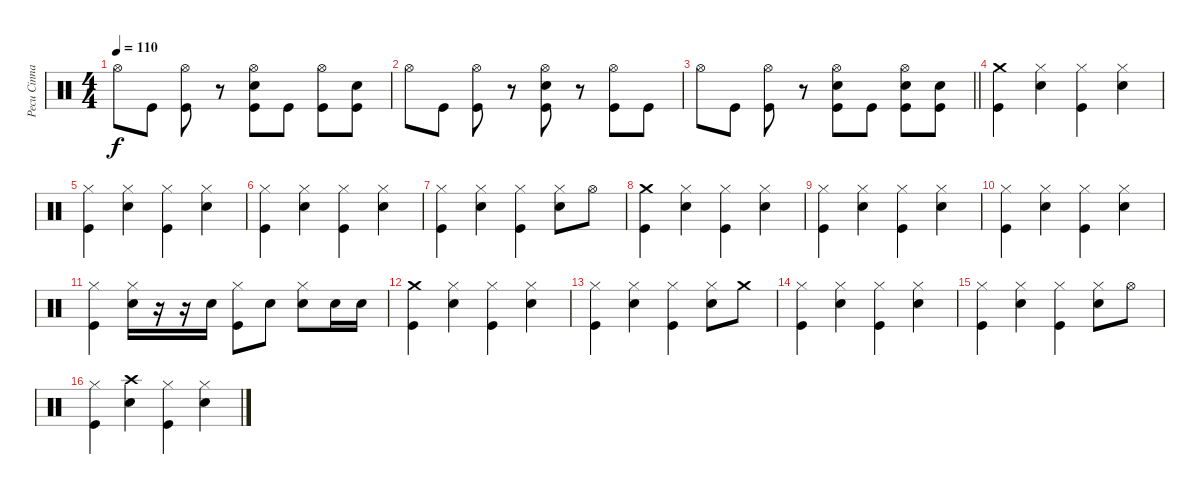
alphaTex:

\track ("Pecu Cinnari" "Pecu Cinna") {instrument percussion}
\staff {score}
\articulation defaults
\ts (4 4)
\tempo 110
\clef neutral
\ks c "Hi-Hat (open)".8{dy f} "Kick (hit)".8
("Hi-Hat (open)" "Kick (hit)").8 r.8 ("Hi-Hat (open)" "Snare (hit) 2" "Kick (hit)").8 "Kick (hit)".8 ("Hi-Hat (open)" "Kick (hit)").8 ("Snare (hit) 2" "Kick (hit)").8 |
"Hi-Hat (open)".8 "Kick (hit)".8 ("Hi-Hat (open)" "Kick (hit)").8 r.8 ("Hi-Hat (open)" "Snare (hit) 2" "Kick (hit)").8 r.8 ("Hi-Hat (open)" "Kick (hit)").8 "Kick (hit)".8 |
\barLineRight lightlight "Hi-Hat (open)".8 "Kick (hit)".8
("Hi-Hat (open)" "Kick (hit)").8 r.8 ("Hi-Hat (open)" "Snare (hit) 2" "Kick (hit)").8 "Kick (hit)".8 ("Hi-Hat (open)" "Snare (hit) 2" "Kick (hit)").8 ("Snare (hit) 2" "Kick (hit)").8 |
\section ("" "")
("Crash medium (hit)" "Kick (hit)").4 ("Hi-Hat (closed)" "Snare (hit) 2").4 ("Hi-Hat (closed)" "Kick (hit)").4 ("Hi-Hat (closed)" "Snare (hit) 2").4 |
("Hi-Hat (closed)" "Kick (hit)").4 ("Hi-Hat (closed)" "Snare (hit) 2").4 ("Hi-Hat (closed)" "Kick (hit)").4 ("Hi-Hat (closed)" "Snare (hit) 2").4 |
("Hi-Hat (closed)" "Kick (hit)").4 ("Hi-Hat (closed)" "Snare (hit) 2").4 ("Hi-Hat (closed)" "Kick (hit)").4 ("Hi-Hat (closed)" "Snare (hit) 2").4 |
("Hi-Hat (closed)" "Kick (hit)").4 ("Hi-Hat (closed)" "Snare (hit) 2").4 ("Hi-Hat (closed)" "Kick (hit)").4 ("Hi-Hat (closed)" "Snare (hit) 2").8 "Hi-Hat (open)".8 |
("Crash medium (hit)" "Kick (hit)").4 ("Hi-Hat (closed)" "Snare (hit) 2").4 ("Hi-Hat (closed)" "Kick (hit)").4 ("Hi-Hat (closed)" "Snare (hit) 2").4 |
("Hi-Hat (closed)" "Kick (hit)").4 ("Hi-Hat (closed)" "Snare (hit) 2").4 ("Hi-Hat (closed)" "Kick (hit)").4 ("Hi-Hat (closed)" "Snare (hit) 2").4 |
("Hi-Hat (closed)" "Kick (hit)").4 ("Hi-Hat (closed)" "Snare (hit) 2").4 ("Hi-Hat (closed)" "Kick (hit)").4 ("Hi-Hat (closed)" "Snare (hit) 2").4 |
("Hi-Hat (closed)" "Kick (hit)").4 ("Hi-Hat (closed)" "Snare (hit) 2").16 r.16 r.16 "Snare (hit) 2".16 ("Hi-Hat (closed)" "Kick (hit)").8 "Snare (hit) 2".8 ("Hi-Hat (closed)" "Snare (hit) 2").8 "Snare (hit) 2".16 "Snare (hit) 2".16 |
("Crash medium (hit)" "Kick (hit)").4 ("Hi-Hat (closed)" "Snare (hit) 2").4 ("Hi-Hat (closed)" "Kick (hit)").4 ("Hi-Hat (closed)" "Snare (hit) 2").4 |
("Hi-Hat (closed)" "Kick (hit)").4 ("Hi-Hat (closed)" "Snare (hit) 2").4 ("Hi-Hat (closed)" "Kick (hit)").4 ("Hi-Hat (closed)" "Snare (hit) 2").8 "Crash medium (hit)".8 |
("Hi-Hat (closed)" "Kick (hit)").4 ("Hi-Hat (closed)" "Snare (hit) 2").4 ("Hi-Hat (closed)" "Kick (hit)").4 ("Hi-Hat (closed)" "Snare (hit) 2").4 |
("Hi-Hat (closed)" "Kick (hit)").4 ("Hi-Hat (closed)" "Snare (hit) 2").4 ("Hi-Hat (closed)" "Kick (hit)").4 ("Hi-Hat (closed)" "Snare (hit) 2").8 "Hi-Hat (open)".8 |
("Hi-Hat (closed)" "Kick (hit)").4 ("Crash high (hit)" "Snare (hit) 2").4 ("Hi-Hat (closed)" "Kick (hit)").4 ("Hi-Hat (closed)" "Snare (hit) 2").4
